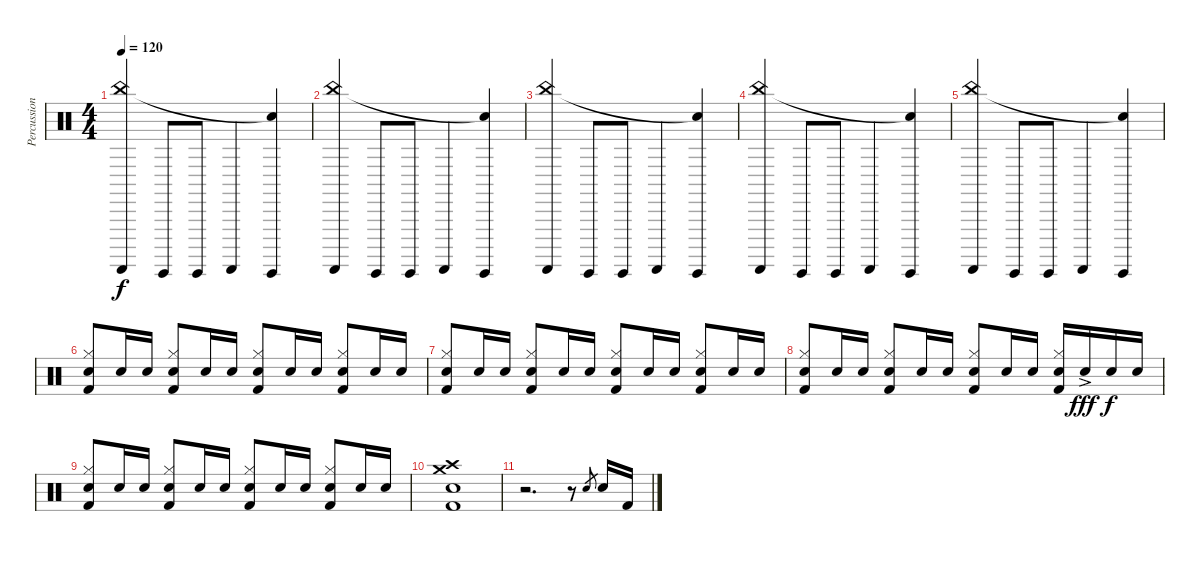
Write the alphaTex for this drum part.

\track ("Percussion" "Percussion") {instrument percussion}
\staff {score}
\articulation defaults
\ts (4 4)
\tempo 120
\clef neutral
\ks c
("Guiro (scrap-return)" "China (hit)").4{dy f} "Guiro (hit)".8 "Guiro (hit)".8 "Guiro (scrap-return)".4 ("Guiro (hit)" "Snare (hit)"{t}).4 |
("Guiro (scrap-return)" "China (hit)").4 "Guiro (hit)".8 "Guiro (hit)".8 "Guiro (scrap-return)".4 ("Guiro (hit)" "Snare (hit)"{t}).4 |
("Guiro (scrap-return)" "China (hit)").4 "Guiro (hit)".8 "Guiro (hit)".8 "Guiro (scrap-return)".4 ("Guiro (hit)" "Snare (hit)"{t}).4 |
("Guiro (scrap-return)" "China (hit)").4 "Guiro (hit)".8 "Guiro (hit)".8 "Guiro (scrap-return)".4 ("Guiro (hit)" "Snare (hit)"{t}).4 |
("Guiro (scrap-return)" "China (hit)").4 "Guiro (hit)".8 "Guiro (hit)".8 "Guiro (scrap-return)".4 ("Guiro (hit)" "Snare (hit)"{t}).4 |
("Hi-Hat (closed)" "Snare (hit) 2" "Kick (hit) 2").8{volume 10} "Snare (hit) 2".16 "Snare (hit) 2".16 ("Hi-Hat (closed)" "Snare (hit) 2" "Kick (hit) 2").8 "Snare (hit) 2".16 "Snare (hit) 2".16 ("Hi-Hat (closed)" "Snare (hit) 2" "Kick (hit) 2").8 "Snare (hit) 2".16 "Snare (hit) 2".16 ("Hi-Hat (closed)" "Snare (hit) 2" "Kick (hit) 2").8 "Snare (hit) 2".16 "Snare (hit) 2".16 |
("Hi-Hat (closed)" "Snare (hit) 2" "Kick (hit) 2").8{volume 10} "Snare (hit) 2".16 "Snare (hit) 2".16 ("Hi-Hat (closed)" "Snare (hit) 2" "Kick (hit) 2").8 "Snare (hit) 2".16 "Snare (hit) 2".16 ("Hi-Hat (closed)" "Snare (hit) 2" "Kick (hit) 2").8 "Snare (hit) 2".16 "Snare (hit) 2".16 ("Hi-Hat (closed)" "Snare (hit) 2" "Kick (hit) 2").8 "Snare (hit) 2".16 "Snare (hit) 2".16 |
("Hi-Hat (closed)" "Snare (hit) 2" "Kick (hit) 2").8{volume 10} "Snare (hit) 2".16 "Snare (hit) 2".16 ("Hi-Hat (closed)" "Snare (hit) 2" "Kick (hit) 2").8 "Snare (hit) 2".16 "Snare (hit) 2".16 ("Hi-Hat (closed)" "Snare (hit) 2" "Kick (hit) 2").8 "Snare (hit) 2".16 "Snare (hit) 2".16 ("Hi-Hat (closed)" "Snare (hit) 2" "Kick (hit) 2").16 "Snare (hit) 2"{ac}.16{dy fff} "Snare (hit) 2".16{dy f} "Snare (hit) 2".16 |
("Hi-Hat (closed)" "Snare (hit) 2" "Kick (hit) 2").8{volume 10} "Snare (hit) 2".16 "Snare (hit) 2".16 ("Hi-Hat (closed)" "Snare (hit) 2" "Kick (hit) 2").8 "Snare (hit) 2".16 "Snare (hit) 2".16 ("Hi-Hat (closed)" "Snare (hit) 2" "Kick (hit) 2").8 "Snare (hit) 2".16 "Snare (hit) 2".16 ("Hi-Hat (closed)" "Snare (hit) 2" "Kick (hit) 2").8 "Snare (hit) 2".16 "Snare (hit) 2".16 |
("Crash medium (hit)" "Crash high (hit)" "Snare (hit) 2" "Kick (hit) 2").1 |
r.2{d} r.8 "Snare (hit) 2".8{gr} "Snare (hit) 2".16 "Kick (hit) 2".16
